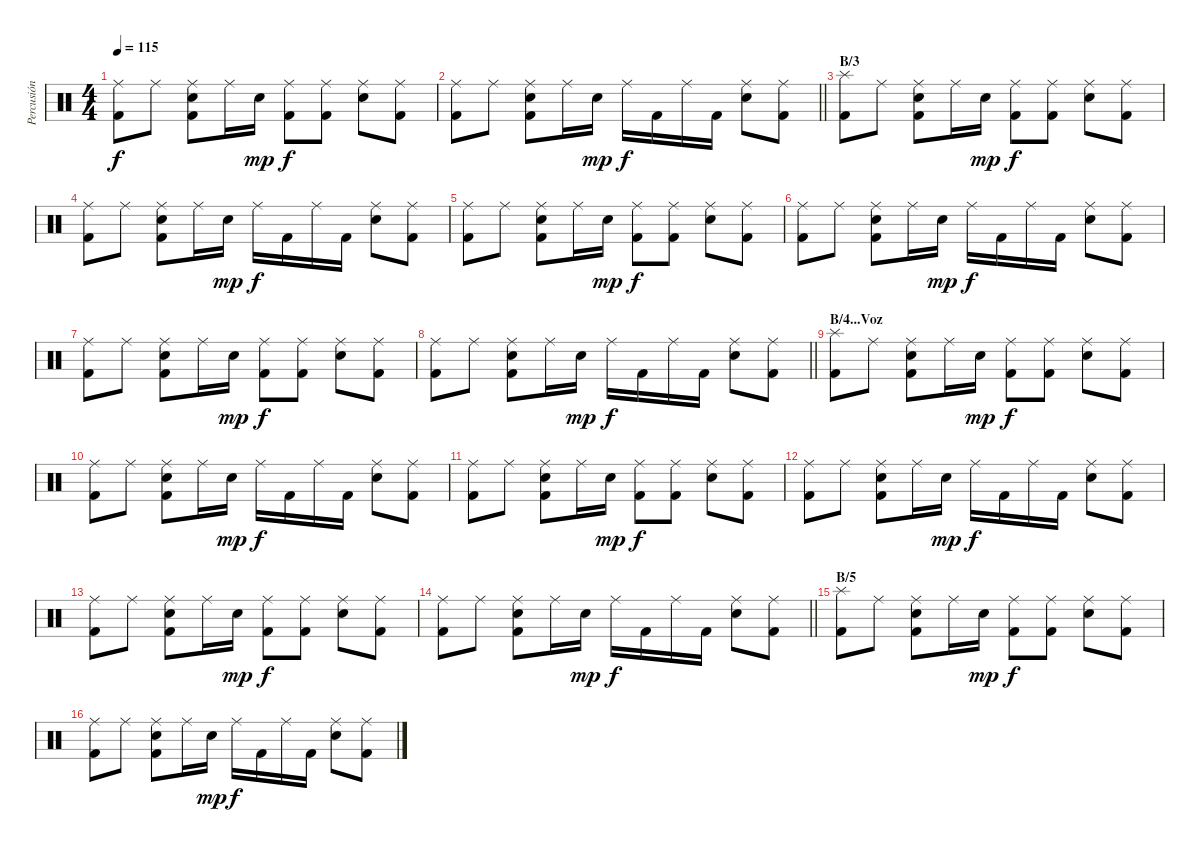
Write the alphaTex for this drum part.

\track ("Percusión" "Percusión") {instrument percussion}
\staff {score}
\articulation defaults
\ts (4 4)
\tempo 115
\clef neutral
\ks c
("Ride (middle)" "Kick (hit) 2").8{dy f} "Ride (middle)".8 ("Ride (middle)" "Snare (hit) 2" "Kick (hit) 2").8 "Ride (middle)".16 "Snare (hit) 2".16{dy mp} ("Ride (middle)" "Kick (hit) 2").8{dy f} ("Ride (middle)" "Kick (hit) 2").8 ("Ride (middle)" "Snare (hit) 2").8 ("Ride (middle)" "Kick (hit) 2").8 |
\barLineRight lightlight
("Ride (middle)" "Kick (hit) 2").8 "Ride (middle)".8 ("Ride (middle)" "Snare (hit) 2" "Kick (hit) 2").8 "Ride (middle)".16 "Snare (hit) 2".16{dy mp} "Ride (middle)".16{dy f} "Kick (hit) 2".16 "Ride (middle)".16 "Kick (hit) 2".16 ("Ride (middle)" "Snare (hit) 2").8 ("Ride (middle)" "Kick (hit) 2").8 |
\section ("" "B/3")
("Splash (hit)" "Kick (hit) 2").8 "Ride (middle)".8 ("Ride (middle)" "Snare (hit) 2" "Kick (hit) 2").8 "Ride (middle)".16 "Snare (hit) 2".16{dy mp} ("Ride (middle)" "Kick (hit) 2").8{dy f} ("Ride (middle)" "Kick (hit) 2").8 ("Ride (middle)" "Snare (hit) 2").8 ("Ride (middle)" "Kick (hit) 2").8 |
("Ride (middle)" "Kick (hit) 2").8 "Ride (middle)".8 ("Ride (middle)" "Snare (hit) 2" "Kick (hit) 2").8 "Ride (middle)".16 "Snare (hit) 2".16{dy mp} "Ride (middle)".16{dy f} "Kick (hit) 2".16 "Ride (middle)".16 "Kick (hit) 2".16 ("Ride (middle)" "Snare (hit) 2").8 ("Ride (middle)" "Kick (hit) 2").8 |
("Ride (middle)" "Kick (hit) 2").8 "Ride (middle)".8 ("Ride (middle)" "Snare (hit) 2" "Kick (hit) 2").8 "Ride (middle)".16 "Snare (hit) 2".16{dy mp} ("Ride (middle)" "Kick (hit) 2").8{dy f} ("Ride (middle)" "Kick (hit) 2").8 ("Ride (middle)" "Snare (hit) 2").8 ("Ride (middle)" "Kick (hit) 2").8 |
("Ride (middle)" "Kick (hit) 2").8 "Ride (middle)".8 ("Ride (middle)" "Snare (hit) 2" "Kick (hit) 2").8 "Ride (middle)".16 "Snare (hit) 2".16{dy mp} "Ride (middle)".16{dy f} "Kick (hit) 2".16 "Ride (middle)".16 "Kick (hit) 2".16 ("Ride (middle)" "Snare (hit) 2").8 ("Ride (middle)" "Kick (hit) 2").8 |
("Ride (middle)" "Kick (hit) 2").8 "Ride (middle)".8 ("Ride (middle)" "Snare (hit) 2" "Kick (hit) 2").8 "Ride (middle)".16 "Snare (hit) 2".16{dy mp} ("Ride (middle)" "Kick (hit) 2").8{dy f} ("Ride (middle)" "Kick (hit) 2").8 ("Ride (middle)" "Snare (hit) 2").8 ("Ride (middle)" "Kick (hit) 2").8 |
\barLineRight lightlight
("Ride (middle)" "Kick (hit) 2").8 "Ride (middle)".8 ("Ride (middle)" "Snare (hit) 2" "Kick (hit) 2").8 "Ride (middle)".16 "Snare (hit) 2".16{dy mp} "Ride (middle)".16{dy f} "Kick (hit) 2".16 "Ride (middle)".16 "Kick (hit) 2".16 ("Ride (middle)" "Snare (hit) 2").8 ("Ride (middle)" "Kick (hit) 2").8 |
\section ("" "B/4...Voz")
("Splash (hit)" "Kick (hit) 2").8 "Ride (middle)".8 ("Ride (middle)" "Snare (hit) 2" "Kick (hit) 2").8 "Ride (middle)".16 "Snare (hit) 2".16{dy mp} ("Ride (middle)" "Kick (hit) 2").8{dy f} ("Ride (middle)" "Kick (hit) 2").8 ("Ride (middle)" "Snare (hit) 2").8 ("Ride (middle)" "Kick (hit) 2").8 |
("Ride (middle)" "Kick (hit) 2").8 "Ride (middle)".8 ("Ride (middle)" "Snare (hit) 2" "Kick (hit) 2").8 "Ride (middle)".16 "Snare (hit) 2".16{dy mp} "Ride (middle)".16{dy f} "Kick (hit) 2".16 "Ride (middle)".16 "Kick (hit) 2".16 ("Ride (middle)" "Snare (hit) 2").8 ("Ride (middle)" "Kick (hit) 2").8 |
("Ride (middle)" "Kick (hit) 2").8 "Ride (middle)".8 ("Ride (middle)" "Snare (hit) 2" "Kick (hit) 2").8 "Ride (middle)".16 "Snare (hit) 2".16{dy mp} ("Ride (middle)" "Kick (hit) 2").8{dy f} ("Ride (middle)" "Kick (hit) 2").8 ("Ride (middle)" "Snare (hit) 2").8 ("Ride (middle)" "Kick (hit) 2").8 |
("Ride (middle)" "Kick (hit) 2").8 "Ride (middle)".8 ("Ride (middle)" "Snare (hit) 2" "Kick (hit) 2").8 "Ride (middle)".16 "Snare (hit) 2".16{dy mp} "Ride (middle)".16{dy f} "Kick (hit) 2".16 "Ride (middle)".16 "Kick (hit) 2".16 ("Ride (middle)" "Snare (hit) 2").8 ("Ride (middle)" "Kick (hit) 2").8 |
("Ride (middle)" "Kick (hit) 2").8 "Ride (middle)".8 ("Ride (middle)" "Snare (hit) 2" "Kick (hit) 2").8 "Ride (middle)".16 "Snare (hit) 2".16{dy mp} ("Ride (middle)" "Kick (hit) 2").8{dy f} ("Ride (middle)" "Kick (hit) 2").8 ("Ride (middle)" "Snare (hit) 2").8 ("Ride (middle)" "Kick (hit) 2").8 |
\barLineRight lightlight
("Ride (middle)" "Kick (hit) 2").8 "Ride (middle)".8 ("Ride (middle)" "Snare (hit) 2" "Kick (hit) 2").8 "Ride (middle)".16 "Snare (hit) 2".16{dy mp} "Ride (middle)".16{dy f} "Kick (hit) 2".16 "Ride (middle)".16 "Kick (hit) 2".16 ("Ride (middle)" "Snare (hit) 2").8 ("Ride (middle)" "Kick (hit) 2").8 |
\section ("" "B/5")
("Splash (hit)" "Kick (hit) 2").8 "Ride (middle)".8 ("Ride (middle)" "Snare (hit) 2" "Kick (hit) 2").8 "Ride (middle)".16 "Snare (hit) 2".16{dy mp} ("Ride (middle)" "Kick (hit) 2").8{dy f} ("Ride (middle)" "Kick (hit) 2").8 ("Ride (middle)" "Snare (hit) 2").8 ("Ride (middle)" "Kick (hit) 2").8 |
("Ride (middle)" "Kick (hit) 2").8 "Ride (middle)".8 ("Ride (middle)" "Snare (hit) 2" "Kick (hit) 2").8 "Ride (middle)".16 "Snare (hit) 2".16{dy mp} "Ride (middle)".16{dy f} "Kick (hit) 2".16 "Ride (middle)".16 "Kick (hit) 2".16 ("Ride (middle)" "Snare (hit) 2").8 ("Ride (middle)" "Kick (hit) 2").8
